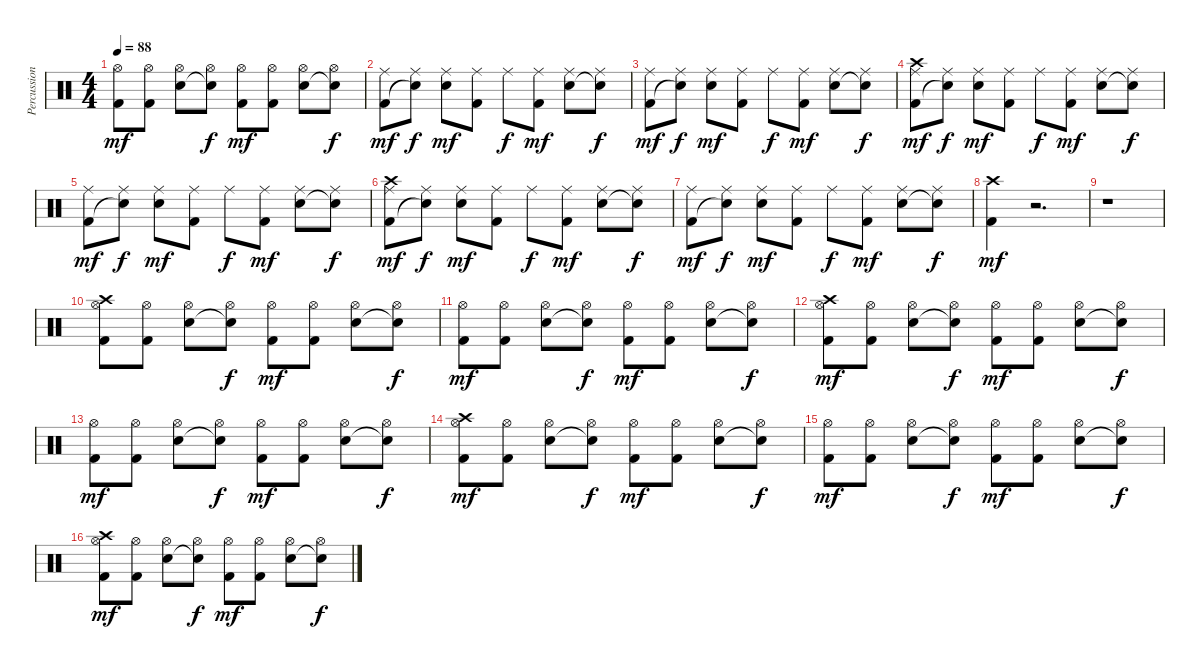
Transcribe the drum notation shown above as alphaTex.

\track ("Percussions" "Percussion") {instrument percussion}
\staff {score}
\articulation defaults
\ts (4 4)
\tempo 88
\clef neutral
\ks c
("Kick (hit) 2" "Hi-Hat (open)").8{dy mf} ("Kick (hit) 2" "Hi-Hat (open)").8 ("Snare (hit) 2" "Hi-Hat (open)").8 ("Snare (hit)"{t} "Hi-Hat (open)").8{dy f} ("Kick (hit) 2" "Hi-Hat (open)").8{dy mf} ("Kick (hit) 2" "Hi-Hat (open)").8 ("Snare (hit) 2" "Hi-Hat (open)").8 ("Snare (hit)"{t} "Hi-Hat (open)").8{dy f} |
("Kick (hit) 2" "Ride (middle)").8{dy mf} ("Snare (hit)"{t} "Ride (middle)").8{dy f} ("Snare (hit) 2" "Ride (middle)").8{dy mf} ("Kick (hit) 2" "Ride (middle)").8 "Ride (middle)".8{dy f} ("Kick (hit) 2" "Ride (middle)").8{dy mf} ("Snare (hit) 2" "Ride (middle)").8 ("Snare (hit)"{t} "Ride (middle)").8{dy f} |
("Kick (hit) 2" "Ride (middle)").8{dy mf} ("Snare (hit)"{t} "Ride (middle)").8{dy f} ("Snare (hit) 2" "Ride (middle)").8{dy mf} ("Kick (hit) 2" "Ride (middle)").8 "Ride (middle)".8{dy f} ("Kick (hit) 2" "Ride (middle)").8{dy mf} ("Snare (hit) 2" "Ride (middle)").8 ("Snare (hit)"{t} "Ride (middle)").8{dy f} |
("Kick (hit) 2" "Ride (middle)" "Crash high (hit)").8{dy mf} ("Snare (hit)"{t} "Ride (middle)").8{dy f} ("Snare (hit) 2" "Ride (middle)").8{dy mf} ("Kick (hit) 2" "Ride (middle)").8 "Ride (middle)".8{dy f} ("Kick (hit) 2" "Ride (middle)").8{dy mf} ("Snare (hit) 2" "Ride (middle)").8 ("Snare (hit)"{t} "Ride (middle)").8{dy f} |
("Kick (hit) 2" "Ride (middle)").8{dy mf} ("Snare (hit)"{t} "Ride (middle)").8{dy f} ("Snare (hit) 2" "Ride (middle)").8{dy mf} ("Kick (hit) 2" "Ride (middle)").8 "Ride (middle)".8{dy f} ("Kick (hit) 2" "Ride (middle)").8{dy mf} ("Snare (hit) 2" "Ride (middle)").8 ("Snare (hit)"{t} "Ride (middle)").8{dy f} |
("Kick (hit) 2" "Ride (middle)" "Crash high (hit)").8{dy mf} ("Snare (hit)"{t} "Ride (middle)").8{dy f} ("Snare (hit) 2" "Ride (middle)").8{dy mf} ("Kick (hit) 2" "Ride (middle)").8 "Ride (middle)".8{dy f} ("Kick (hit) 2" "Ride (middle)").8{dy mf} ("Snare (hit) 2" "Ride (middle)").8 ("Snare (hit)"{t} "Ride (middle)").8{dy f} |
("Kick (hit) 2" "Ride (middle)").8{dy mf} ("Snare (hit)"{t} "Ride (middle)").8{dy f} ("Snare (hit) 2" "Ride (middle)").8{dy mf} ("Kick (hit) 2" "Ride (middle)").8 "Ride (middle)".8{dy f} ("Kick (hit) 2" "Ride (middle)").8{dy mf} ("Snare (hit) 2" "Ride (middle)").8 ("Snare (hit)"{t} "Ride (middle)").8{dy f} |
("Kick (hit) 2" "Crash high (hit)").4{dy mf} r.2{d} |
r.1 |
("Kick (hit) 2" "Hi-Hat (open)" "Crash high (hit)").8 ("Kick (hit) 2" "Hi-Hat (open)").8 ("Snare (hit) 2" "Hi-Hat (open)").8 ("Snare (hit)"{t} "Hi-Hat (open)").8{dy f} ("Kick (hit) 2" "Hi-Hat (open)").8{dy mf} ("Kick (hit) 2" "Hi-Hat (open)").8 ("Snare (hit) 2" "Hi-Hat (open)").8 ("Snare (hit)"{t} "Hi-Hat (open)").8{dy f} |
("Kick (hit) 2" "Hi-Hat (open)").8{dy mf} ("Kick (hit) 2" "Hi-Hat (open)").8 ("Snare (hit) 2" "Hi-Hat (open)").8 ("Snare (hit)"{t} "Hi-Hat (open)").8{dy f} ("Kick (hit) 2" "Hi-Hat (open)").8{dy mf} ("Kick (hit) 2" "Hi-Hat (open)").8 ("Snare (hit) 2" "Hi-Hat (open)").8 ("Snare (hit)"{t} "Hi-Hat (open)").8{dy f} |
("Kick (hit) 2" "Hi-Hat (open)" "Crash high (hit)").8{dy mf} ("Kick (hit) 2" "Hi-Hat (open)").8 ("Snare (hit) 2" "Hi-Hat (open)").8 ("Snare (hit)"{t} "Hi-Hat (open)").8{dy f} ("Kick (hit) 2" "Hi-Hat (open)").8{dy mf} ("Kick (hit) 2" "Hi-Hat (open)").8 ("Snare (hit) 2" "Hi-Hat (open)").8 ("Snare (hit)"{t} "Hi-Hat (open)").8{dy f} |
("Kick (hit) 2" "Hi-Hat (open)").8{dy mf} ("Kick (hit) 2" "Hi-Hat (open)").8 ("Snare (hit) 2" "Hi-Hat (open)").8 ("Snare (hit)"{t} "Hi-Hat (open)").8{dy f} ("Kick (hit) 2" "Hi-Hat (open)").8{dy mf} ("Kick (hit) 2" "Hi-Hat (open)").8 ("Snare (hit) 2" "Hi-Hat (open)").8 ("Snare (hit)"{t} "Hi-Hat (open)").8{dy f} |
("Kick (hit) 2" "Hi-Hat (open)" "Crash high (hit)").8{dy mf} ("Kick (hit) 2" "Hi-Hat (open)").8 ("Snare (hit) 2" "Hi-Hat (open)").8 ("Snare (hit)"{t} "Hi-Hat (open)").8{dy f} ("Kick (hit) 2" "Hi-Hat (open)").8{dy mf} ("Kick (hit) 2" "Hi-Hat (open)").8 ("Snare (hit) 2" "Hi-Hat (open)").8 ("Snare (hit)"{t} "Hi-Hat (open)").8{dy f} |
("Kick (hit) 2" "Hi-Hat (open)").8{dy mf} ("Kick (hit) 2" "Hi-Hat (open)").8 ("Snare (hit) 2" "Hi-Hat (open)").8 ("Snare (hit)"{t} "Hi-Hat (open)").8{dy f} ("Kick (hit) 2" "Hi-Hat (open)").8{dy mf} ("Kick (hit) 2" "Hi-Hat (open)").8 ("Snare (hit) 2" "Hi-Hat (open)").8 ("Snare (hit)"{t} "Hi-Hat (open)").8{dy f} |
("Kick (hit) 2" "Hi-Hat (open)" "Crash high (hit)").8{dy mf} ("Kick (hit) 2" "Hi-Hat (open)").8 ("Snare (hit) 2" "Hi-Hat (open)").8 ("Snare (hit)"{t} "Hi-Hat (open)").8{dy f} ("Kick (hit) 2" "Hi-Hat (open)").8{dy mf} ("Kick (hit) 2" "Hi-Hat (open)").8 ("Snare (hit) 2" "Hi-Hat (open)").8 ("Snare (hit)"{t} "Hi-Hat (open)").8{dy f}
